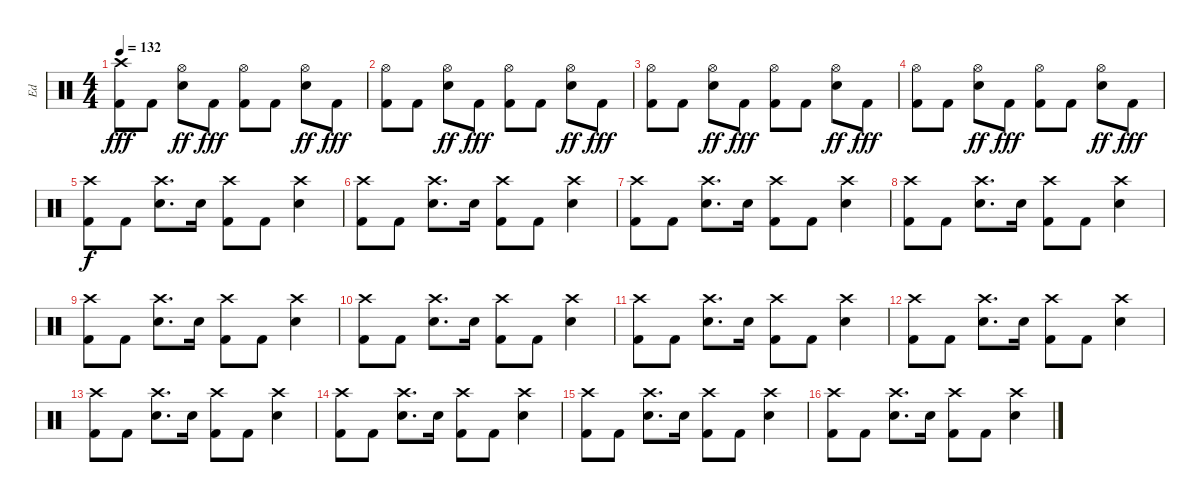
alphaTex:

\track ("Ed" "Ed") {instrument percussion}
\staff {score}
\articulation defaults
\ts (4 4)
\tempo 132
\clef neutral
\ks c
("Crash high (hit)" "Kick (hit) 2").8{dy fff} "Kick (hit) 2".8 ("Hi-Hat (open)" "Electric Snare (hit)").8{dy ff} "Kick (hit) 2".8{dy fff} ("Hi-Hat (open)" "Kick (hit) 2").8 "Kick (hit) 2".8 ("Hi-Hat (open)" "Electric Snare (hit)").8{dy ff} "Kick (hit) 2".8{dy fff} |
("Hi-Hat (open)" "Kick (hit) 2").8 "Kick (hit) 2".8 ("Hi-Hat (open)" "Electric Snare (hit)").8{dy ff} "Kick (hit) 2".8{dy fff} ("Hi-Hat (open)" "Kick (hit) 2").8 "Kick (hit) 2".8 ("Hi-Hat (open)" "Electric Snare (hit)").8{dy ff} "Kick (hit) 2".8{dy fff} |
("Hi-Hat (open)" "Kick (hit) 2").8 "Kick (hit) 2".8 ("Hi-Hat (open)" "Electric Snare (hit)").8{dy ff} "Kick (hit) 2".8{dy fff} ("Hi-Hat (open)" "Kick (hit) 2").8 "Kick (hit) 2".8 ("Hi-Hat (open)" "Electric Snare (hit)").8{dy ff} "Kick (hit) 2".8{dy fff} |
("Hi-Hat (open)" "Kick (hit) 2").8 "Kick (hit) 2".8 ("Hi-Hat (open)" "Electric Snare (hit)").8{dy ff} "Kick (hit) 2".8{dy fff} ("Hi-Hat (open)" "Kick (hit) 2").8 "Kick (hit) 2".8 ("Hi-Hat (open)" "Electric Snare (hit)").8{dy ff} "Kick (hit) 2".8{dy fff} |
("Crash high (hit)" "Kick (hit) 2").8{dy f} "Kick (hit) 2".8 ("Crash high (hit)" "Snare (hit) 2").8{d} "Snare (hit) 2".16 ("Crash high (hit)" "Kick (hit) 2").8 "Kick (hit) 2".8 ("Crash high (hit)" "Snare (hit) 2").4 |
("Crash high (hit)" "Kick (hit) 2").8 "Kick (hit) 2".8 ("Crash high (hit)" "Snare (hit) 2").8{d} "Snare (hit) 2".16 ("Crash high (hit)" "Kick (hit) 2").8 "Kick (hit) 2".8 ("Crash high (hit)" "Snare (hit) 2").4 |
("Crash high (hit)" "Kick (hit) 2").8 "Kick (hit) 2".8 ("Crash high (hit)" "Snare (hit) 2").8{d} "Snare (hit) 2".16 ("Crash high (hit)" "Kick (hit) 2").8 "Kick (hit) 2".8 ("Crash high (hit)" "Snare (hit) 2").4 |
("Crash high (hit)" "Kick (hit) 2").8 "Kick (hit) 2".8 ("Crash high (hit)" "Snare (hit) 2").8{d} "Snare (hit) 2".16 ("Crash high (hit)" "Kick (hit) 2").8 "Kick (hit) 2".8 ("Crash high (hit)" "Snare (hit) 2").4 |
("Crash high (hit)" "Kick (hit) 2").8 "Kick (hit) 2".8 ("Crash high (hit)" "Snare (hit) 2").8{d} "Snare (hit) 2".16 ("Crash high (hit)" "Kick (hit) 2").8 "Kick (hit) 2".8 ("Crash high (hit)" "Snare (hit) 2").4 |
("Crash high (hit)" "Kick (hit) 2").8 "Kick (hit) 2".8 ("Crash high (hit)" "Snare (hit) 2").8{d} "Snare (hit) 2".16 ("Crash high (hit)" "Kick (hit) 2").8 "Kick (hit) 2".8 ("Crash high (hit)" "Snare (hit) 2").4 |
("Crash high (hit)" "Kick (hit) 2").8 "Kick (hit) 2".8 ("Crash high (hit)" "Snare (hit) 2").8{d} "Snare (hit) 2".16 ("Crash high (hit)" "Kick (hit) 2").8 "Kick (hit) 2".8 ("Crash high (hit)" "Snare (hit) 2").4 |
("Crash high (hit)" "Kick (hit) 2").8 "Kick (hit) 2".8 ("Crash high (hit)" "Snare (hit) 2").8{d} "Snare (hit) 2".16 ("Crash high (hit)" "Kick (hit) 2").8 "Kick (hit) 2".8 ("Crash high (hit)" "Snare (hit) 2").4 |
("Crash high (hit)" "Kick (hit) 2").8 "Kick (hit) 2".8 ("Crash high (hit)" "Snare (hit) 2").8{d} "Snare (hit) 2".16 ("Crash high (hit)" "Kick (hit) 2").8 "Kick (hit) 2".8 ("Crash high (hit)" "Snare (hit) 2").4 |
("Crash high (hit)" "Kick (hit) 2").8 "Kick (hit) 2".8 ("Crash high (hit)" "Snare (hit) 2").8{d} "Snare (hit) 2".16 ("Crash high (hit)" "Kick (hit) 2").8 "Kick (hit) 2".8 ("Crash high (hit)" "Snare (hit) 2").4 |
("Crash high (hit)" "Kick (hit) 2").8 "Kick (hit) 2".8 ("Crash high (hit)" "Snare (hit) 2").8{d} "Snare (hit) 2".16 ("Crash high (hit)" "Kick (hit) 2").8 "Kick (hit) 2".8 ("Crash high (hit)" "Snare (hit) 2").4 |
("Crash high (hit)" "Kick (hit) 2").8 "Kick (hit) 2".8 ("Crash high (hit)" "Snare (hit) 2").8{d} "Snare (hit) 2".16 ("Crash high (hit)" "Kick (hit) 2").8 "Kick (hit) 2".8 ("Crash high (hit)" "Snare (hit) 2").4
